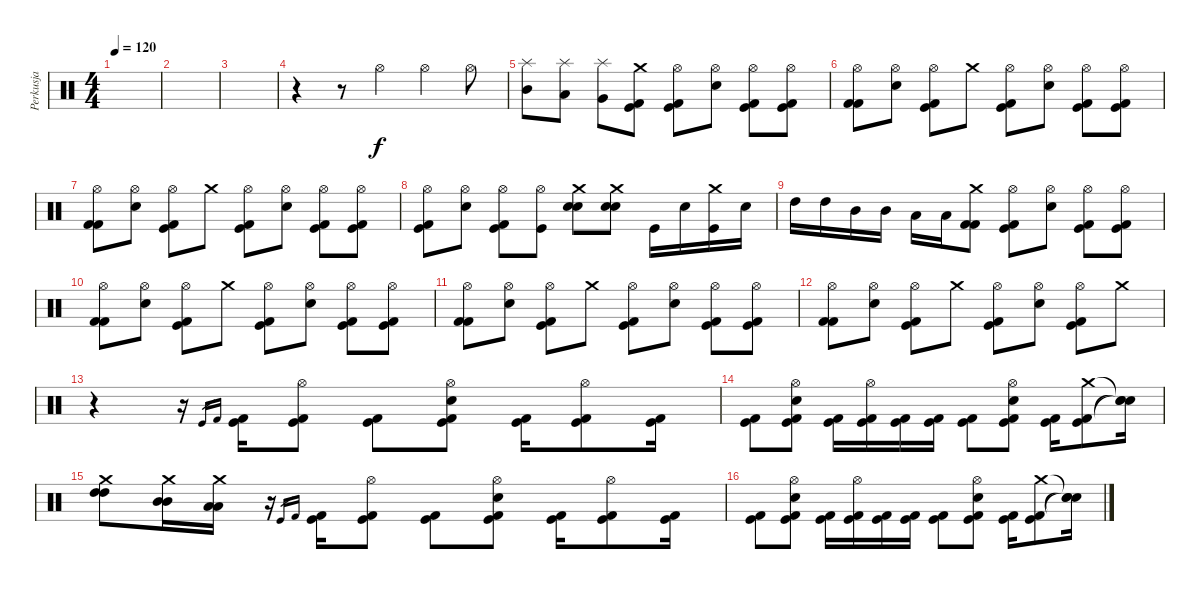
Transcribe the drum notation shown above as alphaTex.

\track ("Perkusja" "Perkusja") {instrument percussion}
\staff {score}
\articulation defaults
\ts (4 4)
\tempo 120
\clef neutral
\ks c
|
|
|
r.4 r.8 "Hi-Hat (open)".4 "Hi-Hat (open)".4 "Hi-Hat (open)".8 |
("Splash (hit)" "Mid Tom (hit)").8 ("Splash (hit)" "Low Tom (hit)").8 ("Splash (hit)" "Very Low Tom (hit)").8 ("Crash medium (hit)" "Kick (hit)" "Kick (hit) 2").8 ("Hi-Hat (open)" "Kick (hit)" "Kick (hit) 2").8 ("Hi-Hat (open)" "Snare (hit) 2").8 ("Hi-Hat (open)" "Kick (hit)" "Kick (hit) 2").8 ("Hi-Hat (open)" "Kick (hit)" "Kick (hit) 2").8 |
("Hi-Hat (open)" "Kick (hit) 2" "Kick (hit) 2").8 ("Hi-Hat (open)" "Snare (hit) 2").8 ("Hi-Hat (open)" "Kick (hit)" "Kick (hit) 2").8 "Crash medium (hit)".8 ("Hi-Hat (open)" "Kick (hit)" "Kick (hit) 2").8 ("Hi-Hat (open)" "Snare (hit) 2").8 ("Hi-Hat (open)" "Kick (hit)" "Kick (hit) 2").8 ("Hi-Hat (open)" "Kick (hit)" "Kick (hit) 2").8 |
("Hi-Hat (open)" "Kick (hit) 2" "Kick (hit) 2").8 ("Hi-Hat (open)" "Snare (hit) 2").8 ("Hi-Hat (open)" "Kick (hit)" "Kick (hit) 2").8 "Crash medium (hit)".8 ("Hi-Hat (open)" "Kick (hit)" "Kick (hit) 2").8 ("Hi-Hat (open)" "Snare (hit) 2").8 ("Hi-Hat (open)" "Kick (hit)" "Kick (hit) 2").8 ("Hi-Hat (open)" "Kick (hit)" "Kick (hit) 2").8 |
("Hi-Hat (open)" "Kick (hit)" "Kick (hit) 2").8 ("Hi-Hat (open)" "Snare (hit) 2").8 ("Hi-Hat (open)" "Kick (hit)" "Kick (hit) 2").8 ("Hi-Hat (open)" "Kick (hit)").8 ("Crash medium (hit)" "Snare (hit) 2" "Electric Snare (hit)").8 ("Crash medium (hit)" "Snare (hit) 2" "Electric Snare (hit)").8 "Kick (hit)".16 "Snare (hit) 2".16 ("Crash medium (hit)" "Kick (hit)").16 "Snare (hit) 2".16 |
"High Tom (hit)".16 "High Tom (hit)".16 "Mid Tom (hit)".16 "Mid Tom (hit)".16 "Low Tom (hit)".16 "Low Tom (hit)".16 ("Crash medium (hit)" "Kick (hit) 2" "Kick (hit) 2").8 ("Hi-Hat (open)" "Kick (hit)" "Kick (hit) 2").8 ("Hi-Hat (open)" "Snare (hit) 2").8 ("Hi-Hat (open)" "Kick (hit)" "Kick (hit) 2").8 ("Hi-Hat (open)" "Kick (hit)" "Kick (hit) 2").8 |
("Hi-Hat (open)" "Kick (hit) 2" "Kick (hit) 2").8 ("Hi-Hat (open)" "Snare (hit) 2").8 ("Hi-Hat (open)" "Kick (hit)" "Kick (hit) 2").8 "Crash medium (hit)".8 ("Hi-Hat (open)" "Kick (hit)" "Kick (hit) 2").8 ("Hi-Hat (open)" "Snare (hit) 2").8 ("Hi-Hat (open)" "Kick (hit)" "Kick (hit) 2").8 ("Hi-Hat (open)" "Kick (hit)" "Kick (hit) 2").8 |
("Hi-Hat (open)" "Kick (hit) 2" "Kick (hit) 2").8 ("Hi-Hat (open)" "Snare (hit) 2").8 ("Hi-Hat (open)" "Kick (hit)" "Kick (hit) 2").8 "Crash medium (hit)".8 ("Hi-Hat (open)" "Kick (hit)" "Kick (hit) 2").8 ("Hi-Hat (open)" "Snare (hit) 2").8 ("Hi-Hat (open)" "Kick (hit)" "Kick (hit) 2").8 ("Hi-Hat (open)" "Kick (hit)" "Kick (hit) 2").8 |
("Hi-Hat (open)" "Kick (hit) 2" "Kick (hit) 2").8 ("Hi-Hat (open)" "Snare (hit) 2").8 ("Hi-Hat (open)" "Kick (hit)" "Kick (hit) 2").8 "Crash medium (hit)".8 ("Hi-Hat (open)" "Kick (hit)" "Kick (hit) 2").8 ("Hi-Hat (open)" "Snare (hit) 2").8 ("Hi-Hat (open)" "Kick (hit)" "Kick (hit) 2").8 "Crash medium (hit)".8 |
r.4 r.16 "Kick (hit)".16{gr} "Kick (hit) 2".16{gr} ("Kick (hit)" "Kick (hit) 2").16 ("Hi-Hat (open)" "Kick (hit)" "Kick (hit) 2").8 ("Kick (hit)" "Kick (hit) 2").8 ("Hi-Hat (open)" "Snare (hit) 2" "Kick (hit)" "Kick (hit) 2").8 ("Kick (hit)" "Kick (hit) 2").16 ("Hi-Hat (open)" "Kick (hit)" "Kick (hit) 2").8 ("Kick (hit)" "Kick (hit) 2").16 |
("Kick (hit)" "Kick (hit) 2").8 ("Snare (hit) 2" "Hi-Hat (open)" "Kick (hit)" "Kick (hit) 2").8 ("Kick (hit)" "Kick (hit) 2").16 ("Hi-Hat (open)" "Kick (hit)" "Kick (hit) 2").16 ("Kick (hit)" "Kick (hit) 2").16 ("Kick (hit)" "Kick (hit) 2").16 ("Kick (hit)" "Kick (hit) 2").8 ("Hi-Hat (open)" "Snare (hit) 2" "Kick (hit)" "Kick (hit) 2").8 ("Kick (hit)" "Kick (hit) 2").16 ("Crash medium (hit)" "Kick (hit)" "Kick (hit) 2").8 ("Snare (hit)"{t} "Snare (hit)"{t} "Snare (hit)"{t}).16 |
("Crash medium (hit)" "High Tom (hit)" "High Tom (hit)").8 ("Crash medium (hit)" "Mid Tom (hit)" "Mid Tom (hit)").16 ("Crash medium (hit)" "Low Tom (hit)" "Low Tom (hit)").16 r.16 "Kick (hit)".16{gr} "Kick (hit) 2".16{gr} ("Kick (hit)" "Kick (hit) 2").16 ("Hi-Hat (open)" "Kick (hit)" "Kick (hit) 2").8 ("Kick (hit)" "Kick (hit) 2").8 ("Hi-Hat (open)" "Snare (hit) 2" "Kick (hit)" "Kick (hit) 2").8 ("Kick (hit)" "Kick (hit) 2").16 ("Hi-Hat (open)" "Kick (hit)" "Kick (hit) 2").8 ("Kick (hit)" "Kick (hit) 2").16 |
("Kick (hit)" "Kick (hit) 2").8 ("Snare (hit) 2" "Hi-Hat (open)" "Kick (hit)" "Kick (hit) 2").8 ("Kick (hit)" "Kick (hit) 2").16 ("Hi-Hat (open)" "Kick (hit)" "Kick (hit) 2").16 ("Kick (hit)" "Kick (hit) 2").16 ("Kick (hit)" "Kick (hit) 2").16 ("Kick (hit)" "Kick (hit) 2").8 ("Hi-Hat (open)" "Snare (hit) 2" "Kick (hit)" "Kick (hit) 2").8 ("Kick (hit)" "Kick (hit) 2").16 ("Crash medium (hit)" "Kick (hit)" "Kick (hit) 2").8 ("Snare (hit)"{t} "Snare (hit)"{t} "Snare (hit)"{t}).16
